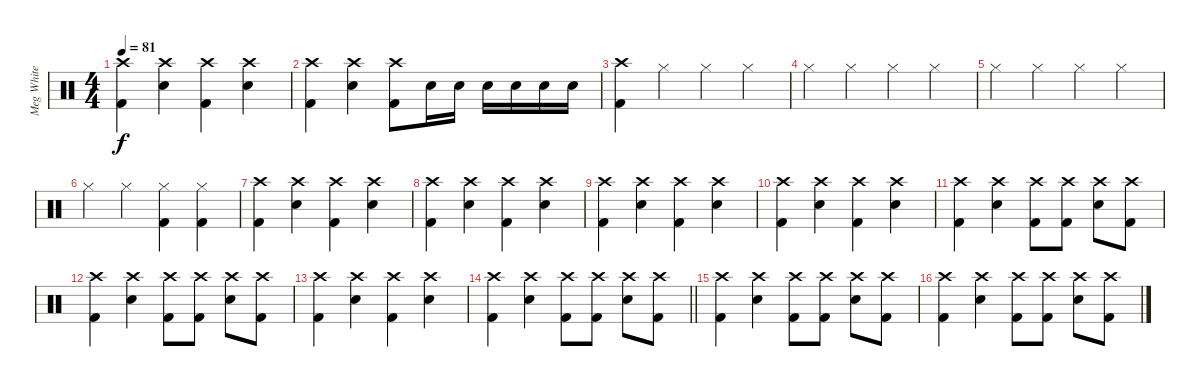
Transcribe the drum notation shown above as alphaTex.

\track ("Meg White" "Meg White") {instrument percussion}
\staff {score}
\articulation defaults
\ts (4 4)
\tempo 81
\clef neutral
\ks c
("Crash high (hit)" "Kick (hit) 2").4{dy f} ("Crash high (hit)" "Electric Snare (hit)").4 ("Crash high (hit)" "Kick (hit) 2").4 ("Crash high (hit)" "Electric Snare (hit)").4 |
("Crash high (hit)" "Kick (hit) 2").4 ("Crash high (hit)" "Electric Snare (hit)").4 ("Crash high (hit)" "Kick (hit) 2").8 "Electric Snare (hit)".16 "Electric Snare (hit)".16 "Electric Snare (hit)".16 "Electric Snare (hit)".16 "Electric Snare (hit)".16 "Electric Snare (hit)".16 |
("Crash high (hit)" "Kick (hit) 2").4 "Hi-Hat (closed)".4 "Hi-Hat (closed)".4 "Hi-Hat (closed)".4 |
"Hi-Hat (closed)".4 "Hi-Hat (closed)".4 "Hi-Hat (closed)".4 "Hi-Hat (closed)".4 |
"Hi-Hat (closed)".4 "Hi-Hat (closed)".4 "Hi-Hat (closed)".4 "Hi-Hat (closed)".4 |
"Hi-Hat (closed)".4 "Hi-Hat (closed)".4 ("Hi-Hat (closed)" "Kick (hit) 2").4 ("Hi-Hat (closed)" "Kick (hit) 2").4 |
("Crash high (hit)" "Kick (hit) 2").4 ("Crash high (hit)" "Electric Snare (hit)").4 ("Crash high (hit)" "Kick (hit) 2").4 ("Crash high (hit)" "Electric Snare (hit)").4 |
("Crash high (hit)" "Kick (hit) 2").4 ("Crash high (hit)" "Electric Snare (hit)").4 ("Crash high (hit)" "Kick (hit) 2").4 ("Crash high (hit)" "Electric Snare (hit)").4 |
("Crash high (hit)" "Kick (hit) 2").4 ("Crash high (hit)" "Electric Snare (hit)").4 ("Crash high (hit)" "Kick (hit) 2").4 ("Crash high (hit)" "Electric Snare (hit)").4 |
("Crash high (hit)" "Kick (hit) 2").4 ("Crash high (hit)" "Electric Snare (hit)").4 ("Crash high (hit)" "Kick (hit) 2").4 ("Crash high (hit)" "Electric Snare (hit)").4 |
("Crash high (hit)" "Kick (hit) 2").4 ("Crash high (hit)" "Electric Snare (hit)").4 ("Crash high (hit)" "Kick (hit) 2").8 ("Crash high (hit)" "Kick (hit) 2").8 ("Crash high (hit)" "Electric Snare (hit)").8 ("Crash high (hit)" "Kick (hit) 2").8 |
("Crash high (hit)" "Kick (hit) 2").4 ("Crash high (hit)" "Electric Snare (hit)").4 ("Crash high (hit)" "Kick (hit) 2").8 ("Crash high (hit)" "Kick (hit) 2").8 ("Crash high (hit)" "Electric Snare (hit)").8 ("Crash high (hit)" "Kick (hit) 2").8 |
("Crash high (hit)" "Kick (hit) 2").4 ("Crash high (hit)" "Electric Snare (hit)").4 ("Crash high (hit)" "Kick (hit) 2").4 ("Crash high (hit)" "Electric Snare (hit)").4 |
\barLineRight lightlight
("Crash high (hit)" "Kick (hit) 2").4 ("Crash high (hit)" "Electric Snare (hit)").4 ("Crash high (hit)" "Kick (hit) 2").8 ("Crash high (hit)" "Kick (hit) 2").8 ("Crash high (hit)" "Electric Snare (hit)").8 ("Crash high (hit)" "Kick (hit) 2").8 |
("Crash high (hit)" "Kick (hit) 2").4 ("Crash high (hit)" "Electric Snare (hit)").4 ("Crash high (hit)" "Kick (hit) 2").8 ("Crash high (hit)" "Kick (hit) 2").8 ("Crash high (hit)" "Electric Snare (hit)").8 ("Crash high (hit)" "Kick (hit) 2").8 |
("Crash high (hit)" "Kick (hit) 2").4 ("Crash high (hit)" "Electric Snare (hit)").4 ("Crash high (hit)" "Kick (hit) 2").8 ("Crash high (hit)" "Kick (hit) 2").8 ("Crash high (hit)" "Electric Snare (hit)").8 ("Crash high (hit)" "Kick (hit) 2").8
